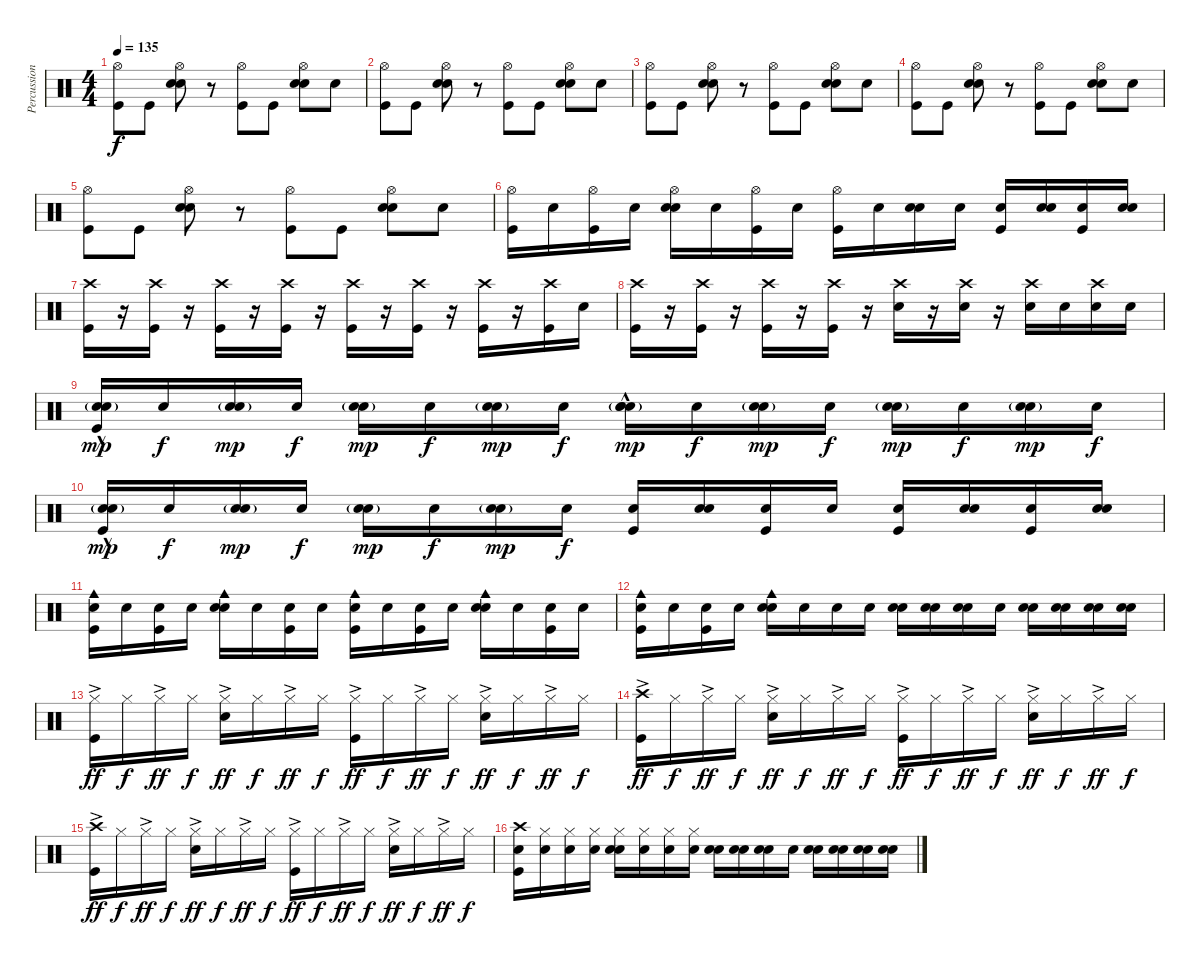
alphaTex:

\track ("Percussion" "Percussion") {instrument percussion}
\staff {score}
\articulation defaults
\ts (4 4)
\tempo 135
\clef neutral
\ks c
("Kick (hit)" "Hi-Hat (open)").8{dy f} "Kick (hit)".8 ("Snare (hit)" "Electric Snare (hit)" "Hi-Hat (open)").8 r.8 ("Kick (hit)" "Hi-Hat (open)").8 "Kick (hit)".8 ("Snare (hit)" "Electric Snare (hit)" "Hi-Hat (open)").8 "Snare (hit)".8 |
("Kick (hit)" "Hi-Hat (open)").8 "Kick (hit)".8 ("Snare (hit)" "Electric Snare (hit)" "Hi-Hat (open)").8 r.8 ("Kick (hit)" "Hi-Hat (open)").8 "Kick (hit)".8 ("Snare (hit)" "Electric Snare (hit)" "Hi-Hat (open)").8 "Snare (hit)".8 |
("Kick (hit)" "Hi-Hat (open)").8 "Kick (hit)".8 ("Snare (hit)" "Electric Snare (hit)" "Hi-Hat (open)").8 r.8 ("Kick (hit)" "Hi-Hat (open)").8 "Kick (hit)".8 ("Snare (hit)" "Electric Snare (hit)" "Hi-Hat (open)").8 "Snare (hit)".8 |
("Kick (hit)" "Hi-Hat (open)").8 "Kick (hit)".8 ("Snare (hit)" "Electric Snare (hit)" "Hi-Hat (open)").8 r.8 ("Kick (hit)" "Hi-Hat (open)").8 "Kick (hit)".8 ("Snare (hit)" "Electric Snare (hit)" "Hi-Hat (open)").8 "Snare (hit)".8 |
("Kick (hit)" "Hi-Hat (open)").8 "Kick (hit)".8 ("Snare (hit)" "Electric Snare (hit)" "Hi-Hat (open)").8 r.8 ("Kick (hit)" "Hi-Hat (open)").8 "Kick (hit)".8 ("Snare (hit)" "Electric Snare (hit)" "Hi-Hat (open)").8 "Snare (hit)".8 |
("Kick (hit)" "Hi-Hat (open)").16 "Snare (hit)".16 ("Kick (hit)" "Hi-Hat (open)").16 "Snare (hit)".16 ("Snare (hit)" "Electric Snare (hit)" "Hi-Hat (open)").16 "Snare (hit)".16 ("Kick (hit)" "Hi-Hat (open)").16 "Snare (hit)".16 ("Kick (hit)" "Hi-Hat (open)").16 "Snare (hit)".16 ("Snare (hit)" "Electric Snare (hit)").16 "Snare (hit)".16 ("Kick (hit)" "Electric Snare (hit)").16 ("Snare (hit)" "Electric Snare (hit)").16 ("Kick (hit)" "Electric Snare (hit)").16 ("Snare (hit)" "Electric Snare (hit)").16 |
("Kick (hit)" "Crash high (hit)").16 r.16 ("Kick (hit)" "Crash high (hit)").16 r.16 ("Kick (hit)" "Crash high (hit)").16 r.16 ("Kick (hit)" "Crash high (hit)").16 r.16 ("Kick (hit)" "Crash high (hit)").16 r.16 ("Kick (hit)" "Crash high (hit)").16 r.16 ("Kick (hit)" "Crash high (hit)").16 r.16 ("Kick (hit)" "Crash high (hit)").16 "Snare (hit)".16 |
("Kick (hit)" "Crash high (hit)").16 r.16 ("Kick (hit)" "Crash high (hit)").16 r.16 ("Kick (hit)" "Crash high (hit)").16 r.16 ("Kick (hit)" "Crash high (hit)").16 r.16 ("Electric Snare (hit)" "Crash high (hit)").16 r.16 ("Electric Snare (hit)" "Crash high (hit)").16 r.16 ("Electric Snare (hit)" "Crash high (hit)").16 "Electric Snare (hit)".16 ("Electric Snare (hit)" "Crash high (hit)").16 "Electric Snare (hit)".16 |
("Snare (hit)" "Kick (hit)"{hac} "Snare (hit) 2"{g}).16{dy mp} "Snare (hit)".16{dy f} ("Snare (hit)" "Snare (hit) 2"{g}).16{dy mp} "Snare (hit)".16{dy f} ("Snare (hit)" "Snare (hit) 2"{g}).16{dy mp} "Snare (hit)".16{dy f} ("Snare (hit)" "Snare (hit) 2"{g}).16{dy mp} "Snare (hit)".16{dy f} ("Snare (hit)" "Electric Snare (hit)"{hac} "Snare (hit) 2"{g}).16{dy mp} "Snare (hit)".16{dy f} ("Snare (hit)" "Snare (hit) 2"{g}).16{dy mp} "Snare (hit)".16{dy f} ("Snare (hit)" "Snare (hit) 2"{g}).16{dy mp} "Snare (hit)".16{dy f} ("Snare (hit)" "Snare (hit) 2"{g}).16{dy mp} "Snare (hit)".16{dy f} |
("Snare (hit)" "Kick (hit)"{hac} "Snare (hit) 2"{g}).16{dy mp} "Snare (hit)".16{dy f} ("Snare (hit)" "Snare (hit) 2"{g}).16{dy mp} "Snare (hit)".16{dy f} ("Snare (hit)" "Snare (hit) 2"{g}).16{dy mp} "Snare (hit)".16{dy f} ("Snare (hit)" "Snare (hit) 2"{g}).16{dy mp} "Snare (hit)".16{dy f} ("Kick (hit)" "Electric Snare (hit)").16 ("Snare (hit)" "Electric Snare (hit)").16 ("Kick (hit)" "Electric Snare (hit)").16 "Electric Snare (hit)".16 ("Kick (hit)" "Electric Snare (hit)").16 ("Snare (hit)" "Electric Snare (hit)").16 ("Kick (hit)" "Electric Snare (hit)").16 ("Snare (hit)" "Electric Snare (hit)").16 |
("Snare (hit)" "Kick (hit)" "Cowbell medium (hit)").16 "Snare (hit)".16 ("Snare (hit)" "Kick (hit)").16 "Snare (hit)".16 ("Snare (hit)" "Electric Snare (hit)" "Cowbell medium (hit)").16 "Snare (hit)".16 ("Snare (hit)" "Kick (hit)").16 "Snare (hit)".16 ("Snare (hit)" "Kick (hit)" "Cowbell medium (hit)").16 "Snare (hit)".16 ("Snare (hit)" "Kick (hit)").16 "Snare (hit)".16 ("Snare (hit)" "Electric Snare (hit)" "Cowbell medium (hit)").16 "Snare (hit)".16 ("Snare (hit)" "Kick (hit)").16 "Snare (hit)".16 |
("Snare (hit)" "Kick (hit)" "Cowbell medium (hit)").16 "Snare (hit)".16 ("Snare (hit)" "Kick (hit)").16 "Snare (hit)".16 ("Snare (hit)" "Electric Snare (hit)" "Cowbell medium (hit)").16 "Snare (hit)".16 "Snare (hit)".16 "Snare (hit)".16 ("Snare (hit)" "Electric Snare (hit)").16 ("Snare (hit)" "Electric Snare (hit)").16 ("Snare (hit)" "Electric Snare (hit)").16 "Snare (hit)".16 ("Snare (hit)" "Electric Snare (hit)").16 ("Snare (hit)" "Electric Snare (hit)").16 ("Snare (hit)" "Electric Snare (hit)").16 ("Snare (hit)" "Electric Snare (hit)").16 |
("Kick (hit)" "Hi-Hat (closed)"{ac}).16{dy ff} "Hi-Hat (closed)".16{dy f} "Hi-Hat (closed)"{ac}.16{dy ff} "Hi-Hat (closed)".16{dy f} ("Electric Snare (hit)" "Hi-Hat (closed)"{ac}).16{dy ff} "Hi-Hat (closed)".16{dy f} "Hi-Hat (closed)"{ac}.16{dy ff} "Hi-Hat (closed)".16{dy f} ("Kick (hit)" "Hi-Hat (closed)"{ac}).16{dy ff} "Hi-Hat (closed)".16{dy f} "Hi-Hat (closed)"{ac}.16{dy ff} "Hi-Hat (closed)".16{dy f} ("Electric Snare (hit)" "Hi-Hat (closed)"{ac}).16{dy ff} "Hi-Hat (closed)".16{dy f} "Hi-Hat (closed)"{ac}.16{dy ff} "Hi-Hat (closed)".16{dy f} |
("Kick (hit)" "Crash high (hit)"{ac}).16{dy ff} "Hi-Hat (closed)".16{dy f} "Hi-Hat (closed)"{ac}.16{dy ff} "Hi-Hat (closed)".16{dy f} ("Electric Snare (hit)" "Hi-Hat (closed)"{ac}).16{dy ff} "Hi-Hat (closed)".16{dy f} "Hi-Hat (closed)"{ac}.16{dy ff} "Hi-Hat (closed)".16{dy f} ("Kick (hit)" "Hi-Hat (closed)"{ac}).16{dy ff} "Hi-Hat (closed)".16{dy f} "Hi-Hat (closed)"{ac}.16{dy ff} "Hi-Hat (closed)".16{dy f} ("Electric Snare (hit)" "Hi-Hat (closed)"{ac}).16{dy ff} "Hi-Hat (closed)".16{dy f} "Hi-Hat (closed)"{ac}.16{dy ff} "Hi-Hat (closed)".16{dy f} |
("Kick (hit)" "Crash high (hit)"{ac}).16{dy ff} "Hi-Hat (closed)".16{dy f} "Hi-Hat (closed)"{ac}.16{dy ff} "Hi-Hat (closed)".16{dy f} ("Electric Snare (hit)" "Hi-Hat (closed)"{ac}).16{dy ff} "Hi-Hat (closed)".16{dy f} "Hi-Hat (closed)"{ac}.16{dy ff} "Hi-Hat (closed)".16{dy f} ("Kick (hit)" "Hi-Hat (closed)"{ac}).16{dy ff} "Hi-Hat (closed)".16{dy f} "Hi-Hat (closed)"{ac}.16{dy ff} "Hi-Hat (closed)".16{dy f} ("Electric Snare (hit)" "Hi-Hat (closed)"{ac}).16{dy ff} "Hi-Hat (closed)".16{dy f} "Hi-Hat (closed)"{ac}.16{dy ff} "Hi-Hat (closed)".16{dy f} |
("Snare (hit)" "Kick (hit)" "Crash high (hit)").16 ("Snare (hit)" "Hi-Hat (closed)").16 ("Snare (hit)" "Hi-Hat (closed)").16 ("Snare (hit)" "Hi-Hat (closed)").16 ("Snare (hit)" "Electric Snare (hit)" "Hi-Hat (closed)").16 ("Snare (hit)" "Hi-Hat (closed)").16 ("Snare (hit)" "Hi-Hat (closed)").16 ("Snare (hit)" "Hi-Hat (closed)").16 ("Snare (hit)" "Electric Snare (hit)").16 ("Snare (hit)" "Electric Snare (hit)").16 ("Snare (hit)" "Electric Snare (hit)").16 "Snare (hit)".16 ("Snare (hit)" "Electric Snare (hit)").16 ("Snare (hit)" "Electric Snare (hit)").16 ("Snare (hit)" "Electric Snare (hit)").16 ("Snare (hit)" "Electric Snare (hit)").16
